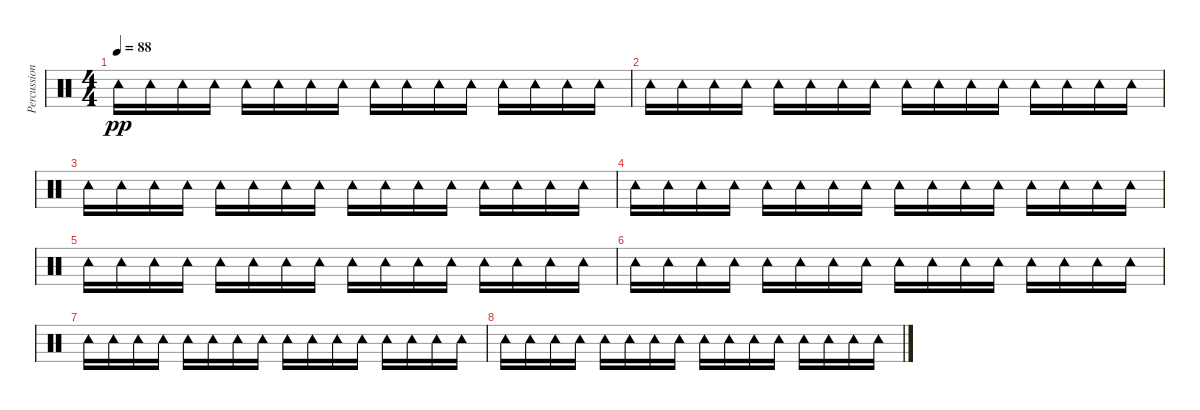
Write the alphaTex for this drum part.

\track ("Percussion" "Percussion") {instrument percussion}
\staff {score}
\articulation defaults
\ts (4 4)
\tempo 88
\clef neutral
\ks c "Tambourine (hit)".16{dy pp} "Tambourine (hit)".16 "Tambourine (hit)".16 "Tambourine (hit)".16 "Tambourine (hit)".16 "Tambourine (hit)".16 "Tambourine (hit)".16 "Tambourine (hit)".16 "Tambourine (hit)".16 "Tambourine (hit)".16 "Tambourine (hit)".16 "Tambourine (hit)".16 "Tambourine (hit)".16 "Tambourine (hit)".16 "Tambourine (hit)".16 "Tambourine (hit)".16
|
"Tambourine (hit)".16 "Tambourine (hit)".16 "Tambourine (hit)".16 "Tambourine (hit)".16 "Tambourine (hit)".16 "Tambourine (hit)".16 "Tambourine (hit)".16 "Tambourine (hit)".16 "Tambourine (hit)".16 "Tambourine (hit)".16 "Tambourine (hit)".16 "Tambourine (hit)".16 "Tambourine (hit)".16 "Tambourine (hit)".16 "Tambourine (hit)".16 "Tambourine (hit)".16 |
"Tambourine (hit)".16 "Tambourine (hit)".16 "Tambourine (hit)".16 "Tambourine (hit)".16 "Tambourine (hit)".16 "Tambourine (hit)".16 "Tambourine (hit)".16 "Tambourine (hit)".16 "Tambourine (hit)".16 "Tambourine (hit)".16 "Tambourine (hit)".16 "Tambourine (hit)".16 "Tambourine (hit)".16 "Tambourine (hit)".16 "Tambourine (hit)".16 "Tambourine (hit)".16 |
"Tambourine (hit)".16 "Tambourine (hit)".16 "Tambourine (hit)".16 "Tambourine (hit)".16 "Tambourine (hit)".16 "Tambourine (hit)".16 "Tambourine (hit)".16 "Tambourine (hit)".16 "Tambourine (hit)".16 "Tambourine (hit)".16 "Tambourine (hit)".16 "Tambourine (hit)".16 "Tambourine (hit)".16 "Tambourine (hit)".16 "Tambourine (hit)".16 "Tambourine (hit)".16 |
"Tambourine (hit)".16 "Tambourine (hit)".16 "Tambourine (hit)".16 "Tambourine (hit)".16 "Tambourine (hit)".16 "Tambourine (hit)".16 "Tambourine (hit)".16 "Tambourine (hit)".16 "Tambourine (hit)".16 "Tambourine (hit)".16 "Tambourine (hit)".16 "Tambourine (hit)".16 "Tambourine (hit)".16 "Tambourine (hit)".16 "Tambourine (hit)".16 "Tambourine (hit)".16 |
"Tambourine (hit)".16 "Tambourine (hit)".16 "Tambourine (hit)".16 "Tambourine (hit)".16 "Tambourine (hit)".16 "Tambourine (hit)".16 "Tambourine (hit)".16 "Tambourine (hit)".16 "Tambourine (hit)".16 "Tambourine (hit)".16 "Tambourine (hit)".16 "Tambourine (hit)".16 "Tambourine (hit)".16 "Tambourine (hit)".16 "Tambourine (hit)".16 "Tambourine (hit)".16 |
"Tambourine (hit)".16 "Tambourine (hit)".16 "Tambourine (hit)".16 "Tambourine (hit)".16 "Tambourine (hit)".16 "Tambourine (hit)".16 "Tambourine (hit)".16 "Tambourine (hit)".16 "Tambourine (hit)".16 "Tambourine (hit)".16 "Tambourine (hit)".16 "Tambourine (hit)".16 "Tambourine (hit)".16 "Tambourine (hit)".16 "Tambourine (hit)".16 "Tambourine (hit)".16 |
"Tambourine (hit)".16 "Tambourine (hit)".16 "Tambourine (hit)".16 "Tambourine (hit)".16 "Tambourine (hit)".16 "Tambourine (hit)".16 "Tambourine (hit)".16 "Tambourine (hit)".16 "Tambourine (hit)".16 "Tambourine (hit)".16 "Tambourine (hit)".16 "Tambourine (hit)".16 "Tambourine (hit)".16 "Tambourine (hit)".16 "Tambourine (hit)".16 "Tambourine (hit)".16
